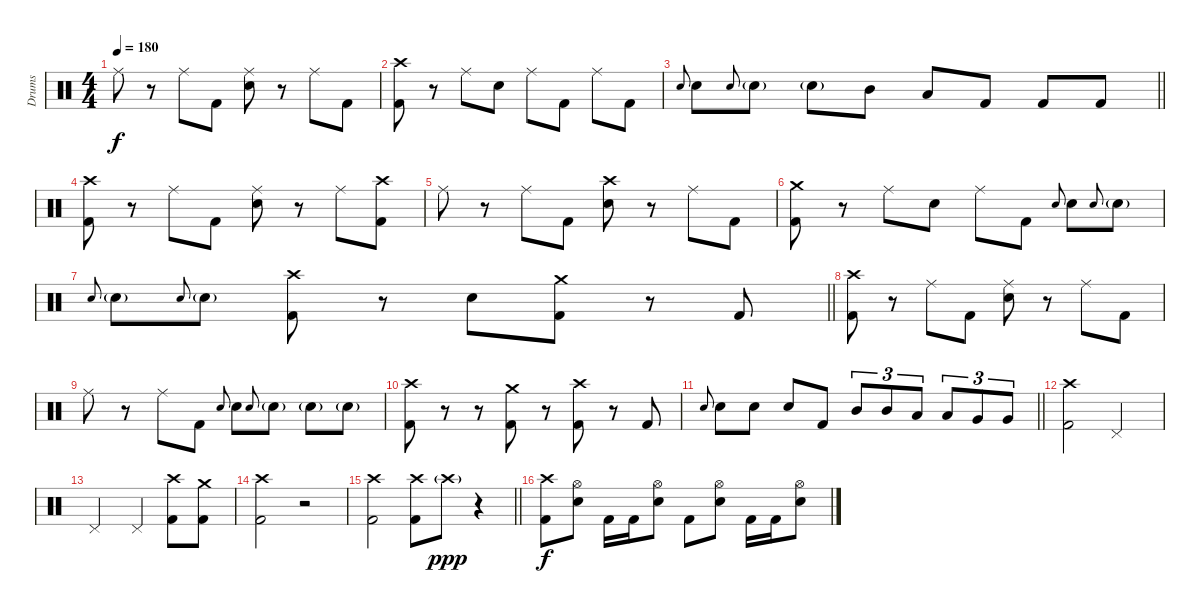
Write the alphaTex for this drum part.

\track ("Drums" "Drums") {instrument percussion}
\staff {score}
\articulation defaults
\ts (4 4)
\tempo 180
\clef neutral
\ks c "Ride (middle)".8{dy f}
r.8 "Ride (middle)".8 "Kick (hit) 2".8 ("Ride (middle)" "Electric Snare (hit)").8 r.8 "Ride (middle)".8 "Kick (hit) 2".8 |
("Crash high (hit)" "Kick (hit) 2").8 r.8 "Ride (middle)".8 "Electric Snare (hit)".8 "Ride (middle)".8 "Kick (hit) 2".8 "Ride (middle)".8 "Kick (hit) 2".8 |
\barLineRight lightlight "Electric Snare (hit)".8{gr onbeat} "Electric Snare (hit)".8 "Electric Snare (hit)".8{gr onbeat} "Electric Snare (hit)"{g}.8 "Electric Snare (hit)"{g}.8 "Mid Tom (hit)".8 "Low Tom (hit)".8 "Kick (hit) 2".8 "Kick (hit) 2".8 "Kick (hit) 2".8
|
("Crash high (hit)" "Kick (hit) 2").8 r.8 "Ride (middle)".8 "Kick (hit) 2".8 ("Ride (middle)" "Electric Snare (hit)").8 r.8 "Ride (middle)".8 ("Crash high (hit)" "Kick (hit) 2").8 |
"Ride (middle)".8 r.8 "Ride (middle)".8 "Kick (hit) 2".8 ("Crash high (hit)" "Electric Snare (hit)").8 r.8 "Ride (middle)".8 "Kick (hit) 2".8 |
("Crash medium (hit)" "Kick (hit) 2").8 r.8 "Ride (middle)".8 "Electric Snare (hit)".8 "Ride (middle)".8 "Kick (hit) 2".8 "Electric Snare (hit)".8{gr onbeat} "Electric Snare (hit)".8 "Electric Snare (hit)".8{gr onbeat} "Electric Snare (hit)"{g}.8 |
\barLineRight lightlight "Electric Snare (hit)".8{gr onbeat} "Electric Snare (hit)"{g}.8 "Electric Snare (hit)".8{gr onbeat} "Electric Snare (hit)"{g}.8
("Crash high (hit)" "Kick (hit) 2").8 r.8 "Electric Snare (hit)".8 ("Crash medium (hit)" "Kick (hit) 2").8 r.8 "Kick (hit) 2".8 |
("Crash high (hit)" "Kick (hit) 2").8 r.8 "Ride (middle)".8 "Kick (hit) 2".8 ("Ride (middle)" "Electric Snare (hit)").8 r.8 "Ride (middle)".8 "Kick (hit) 2".8 |
"Ride (middle)".8 r.8 "Ride (middle)".8 "Kick (hit) 2".8 "Electric Snare (hit)".8{gr onbeat} "Electric Snare (hit)".8 "Electric Snare (hit)".8{gr onbeat} "Electric Snare (hit)"{g}.8 "Electric Snare (hit)"{g}.8 "Electric Snare (hit)"{g}.8 |
("Crash high (hit)" "Kick (hit) 2").8 r.8 r.8 ("Crash medium (hit)" "Kick (hit) 2").8 r.8 ("Crash high (hit)" "Kick (hit) 2").8 r.8 "Kick (hit) 2".8 |
\barLineRight lightlight "Electric Snare (hit)".8{gr onbeat} "Electric Snare (hit)".8 "Electric Snare (hit)".8 "Electric Snare (hit)".8 "Kick (hit) 2".8 "Mid Tom (hit)".8{tu (3 2)} "Mid Tom (hit)".8{tu (3 2)} "Low Tom (hit)".8{tu (3 2)} "Low Tom (hit)".8{tu (3 2)} "Very Low Tom (hit)".8{tu (3 2)} "Very Low Tom (hit)".8{tu (3 2)}
|
("Crash high (hit)" "Kick (hit) 2").2 "Pedal Hi-Hat (hit)".2 |
"Pedal Hi-Hat (hit)".2 "Pedal Hi-Hat (hit)".4 ("Crash high (hit)" "Kick (hit) 2").8 ("Crash medium (hit)" "Kick (hit) 2").8 |
("Crash high (hit)" "Kick (hit) 2").2 r.2 |
\barLineRight lightlight
("Crash high (hit)" "Kick (hit) 2").2 ("Crash high (hit)" "Kick (hit) 2").8 "Crash high (hit)"{g}.8{dy ppp} r.4 |
("Crash high (hit)" "Kick (hit) 2").8{dy f} ("Hi-Hat (open)" "Electric Snare (hit)").8 "Kick (hit) 2".16 "Kick (hit) 2".16 ("Hi-Hat (open)" "Electric Snare (hit)").8 "Kick (hit) 2".8 ("Hi-Hat (open)" "Electric Snare (hit)").8 "Kick (hit) 2".16 "Kick (hit) 2".16 ("Hi-Hat (open)" "Electric Snare (hit)").8
